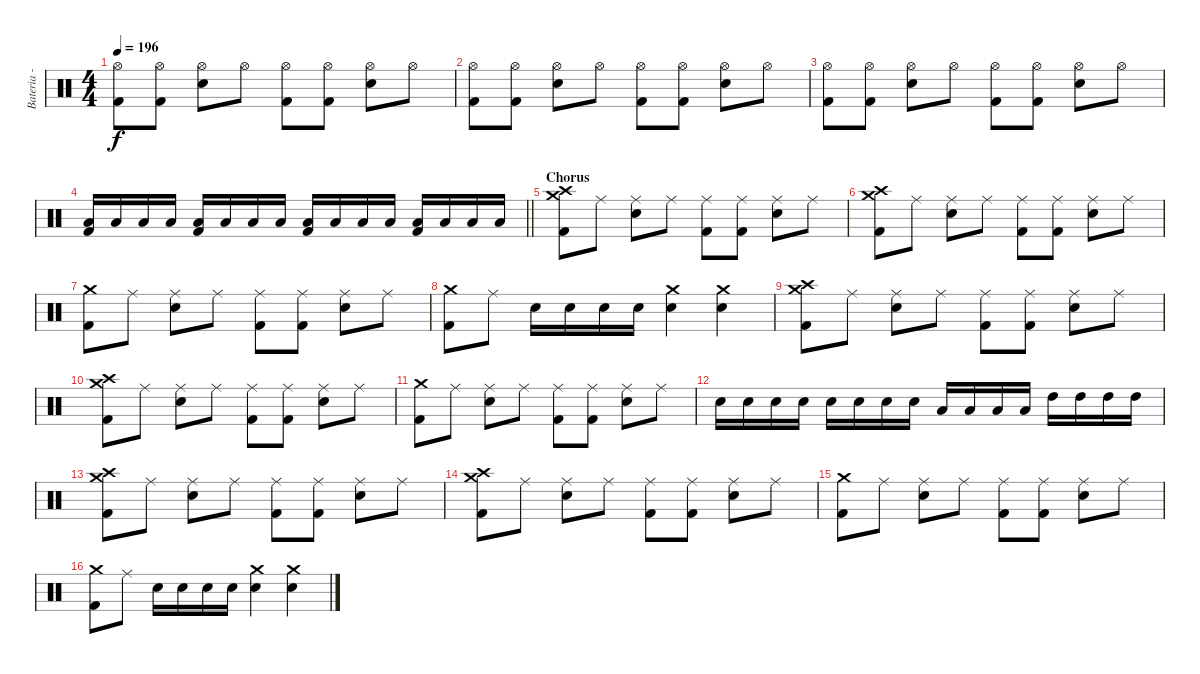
\track ("Bateria - Larzon" "Bateria - ") {instrument percussion}
\staff {score}
\articulation defaults
\ts (4 4)
\tempo 196
\clef neutral
\ks c
("Kick (hit) 2" "Hi-Hat (open)").8{dy f} ("Kick (hit) 2" "Hi-Hat (open)").8 ("Snare (hit) 2" "Hi-Hat (open)").8 "Hi-Hat (open)".8 ("Kick (hit) 2" "Hi-Hat (open)").8 ("Kick (hit) 2" "Hi-Hat (open)").8 ("Snare (hit) 2" "Hi-Hat (open)").8 "Hi-Hat (open)".8 |
("Kick (hit) 2" "Hi-Hat (open)").8 ("Kick (hit) 2" "Hi-Hat (open)").8 ("Snare (hit) 2" "Hi-Hat (open)").8 "Hi-Hat (open)".8 ("Kick (hit) 2" "Hi-Hat (open)").8 ("Kick (hit) 2" "Hi-Hat (open)").8 ("Snare (hit) 2" "Hi-Hat (open)").8 "Hi-Hat (open)".8 |
("Kick (hit) 2" "Hi-Hat (open)").8 ("Kick (hit) 2" "Hi-Hat (open)").8 ("Snare (hit) 2" "Hi-Hat (open)").8 "Hi-Hat (open)".8 ("Kick (hit) 2" "Hi-Hat (open)").8 ("Kick (hit) 2" "Hi-Hat (open)").8 ("Snare (hit) 2" "Hi-Hat (open)").8 "Hi-Hat (open)".8 |
\barLineRight lightlight
("Kick (hit) 2" "Low Tom (hit)").16{volume 16} "Low Tom (hit)".16 "Low Tom (hit)".16 "Low Tom (hit)".16 ("Kick (hit) 2" "Low Tom (hit)").16 "Low Tom (hit)".16 "Low Tom (hit)".16 "Low Tom (hit)".16 ("Kick (hit) 2" "Low Tom (hit)").16 "Low Tom (hit)".16 "Low Tom (hit)".16 "Low Tom (hit)".16 ("Kick (hit) 2" "Low Tom (hit)").16 "Low Tom (hit)".16 "Low Tom (hit)".16 "Low Tom (hit)".16 |
\section ("" "Chorus")
("Kick (hit) 2" "Crash medium (hit)" "Crash high (hit)").8{volume 13} "Ride (middle)".8 ("Snare (hit) 2" "Ride (middle)").8 "Ride (middle)".8 ("Kick (hit) 2" "Ride (middle)").8 ("Kick (hit) 2" "Ride (middle)").8 ("Snare (hit) 2" "Ride (middle)").8 "Ride (middle)".8 |
("Kick (hit) 2" "Crash medium (hit)" "Crash high (hit)").8 "Ride (middle)".8 ("Snare (hit) 2" "Ride (middle)").8 "Ride (middle)".8 ("Kick (hit) 2" "Ride (middle)").8 ("Kick (hit) 2" "Ride (middle)").8 ("Snare (hit) 2" "Ride (middle)").8 "Ride (middle)".8 |
("Kick (hit) 2" "Crash medium (hit)").8 "Ride (middle)".8 ("Snare (hit) 2" "Ride (middle)").8 "Ride (middle)".8 ("Kick (hit) 2" "Ride (middle)").8 ("Kick (hit) 2" "Ride (middle)").8 ("Snare (hit) 2" "Ride (middle)").8 "Ride (middle)".8 |
("Kick (hit) 2" "Crash medium (hit)").8 "Ride (middle)".8 "Snare (hit) 2".16 "Snare (hit) 2".16 "Snare (hit) 2".16 "Snare (hit) 2".16 ("Snare (hit) 2" "Crash medium (hit)").4 ("Snare (hit) 2" "Crash medium (hit)").4 |
("Kick (hit) 2" "Crash medium (hit)" "Crash high (hit)").8{volume 13} "Ride (middle)".8 ("Snare (hit) 2" "Ride (middle)").8 "Ride (middle)".8 ("Kick (hit) 2" "Ride (middle)").8 ("Kick (hit) 2" "Ride (middle)").8 ("Snare (hit) 2" "Ride (middle)").8 "Ride (middle)".8 |
("Kick (hit) 2" "Crash medium (hit)" "Crash high (hit)").8 "Ride (middle)".8 ("Snare (hit) 2" "Ride (middle)").8 "Ride (middle)".8 ("Kick (hit) 2" "Ride (middle)").8 ("Kick (hit) 2" "Ride (middle)").8 ("Snare (hit) 2" "Ride (middle)").8 "Ride (middle)".8 |
("Kick (hit) 2" "Crash medium (hit)").8 "Ride (middle)".8 ("Snare (hit) 2" "Ride (middle)").8 "Ride (middle)".8 ("Kick (hit) 2" "Ride (middle)").8 ("Kick (hit) 2" "Ride (middle)").8 ("Snare (hit) 2" "Ride (middle)").8 "Ride (middle)".8 |
"Snare (hit) 2".16 "Snare (hit) 2".16 "Snare (hit) 2".16 "Snare (hit) 2".16 "Snare (hit) 2".16 "Snare (hit) 2".16 "Snare (hit) 2".16 "Snare (hit) 2".16 "Low Tom (hit)".16 "Low Tom (hit)".16 "Low Tom (hit)".16 "Low Tom (hit)".16 "High Tom (hit)".16 "High Tom (hit)".16 "High Tom (hit)".16 "High Tom (hit)".16 |
("Kick (hit) 2" "Crash medium (hit)" "Crash high (hit)").8{volume 13} "Ride (middle)".8 ("Snare (hit) 2" "Ride (middle)").8 "Ride (middle)".8 ("Kick (hit) 2" "Ride (middle)").8 ("Kick (hit) 2" "Ride (middle)").8 ("Snare (hit) 2" "Ride (middle)").8 "Ride (middle)".8 |
("Kick (hit) 2" "Crash medium (hit)" "Crash high (hit)").8 "Ride (middle)".8 ("Snare (hit) 2" "Ride (middle)").8 "Ride (middle)".8 ("Kick (hit) 2" "Ride (middle)").8 ("Kick (hit) 2" "Ride (middle)").8 ("Snare (hit) 2" "Ride (middle)").8 "Ride (middle)".8 |
("Kick (hit) 2" "Crash medium (hit)").8 "Ride (middle)".8 ("Snare (hit) 2" "Ride (middle)").8 "Ride (middle)".8 ("Kick (hit) 2" "Ride (middle)").8 ("Kick (hit) 2" "Ride (middle)").8 ("Snare (hit) 2" "Ride (middle)").8 "Ride (middle)".8 |
("Kick (hit) 2" "Crash medium (hit)").8 "Ride (middle)".8 "Snare (hit) 2".16 "Snare (hit) 2".16 "Snare (hit) 2".16 "Snare (hit) 2".16 ("Snare (hit) 2" "Crash medium (hit)").4 ("Snare (hit) 2" "Crash medium (hit)").4
